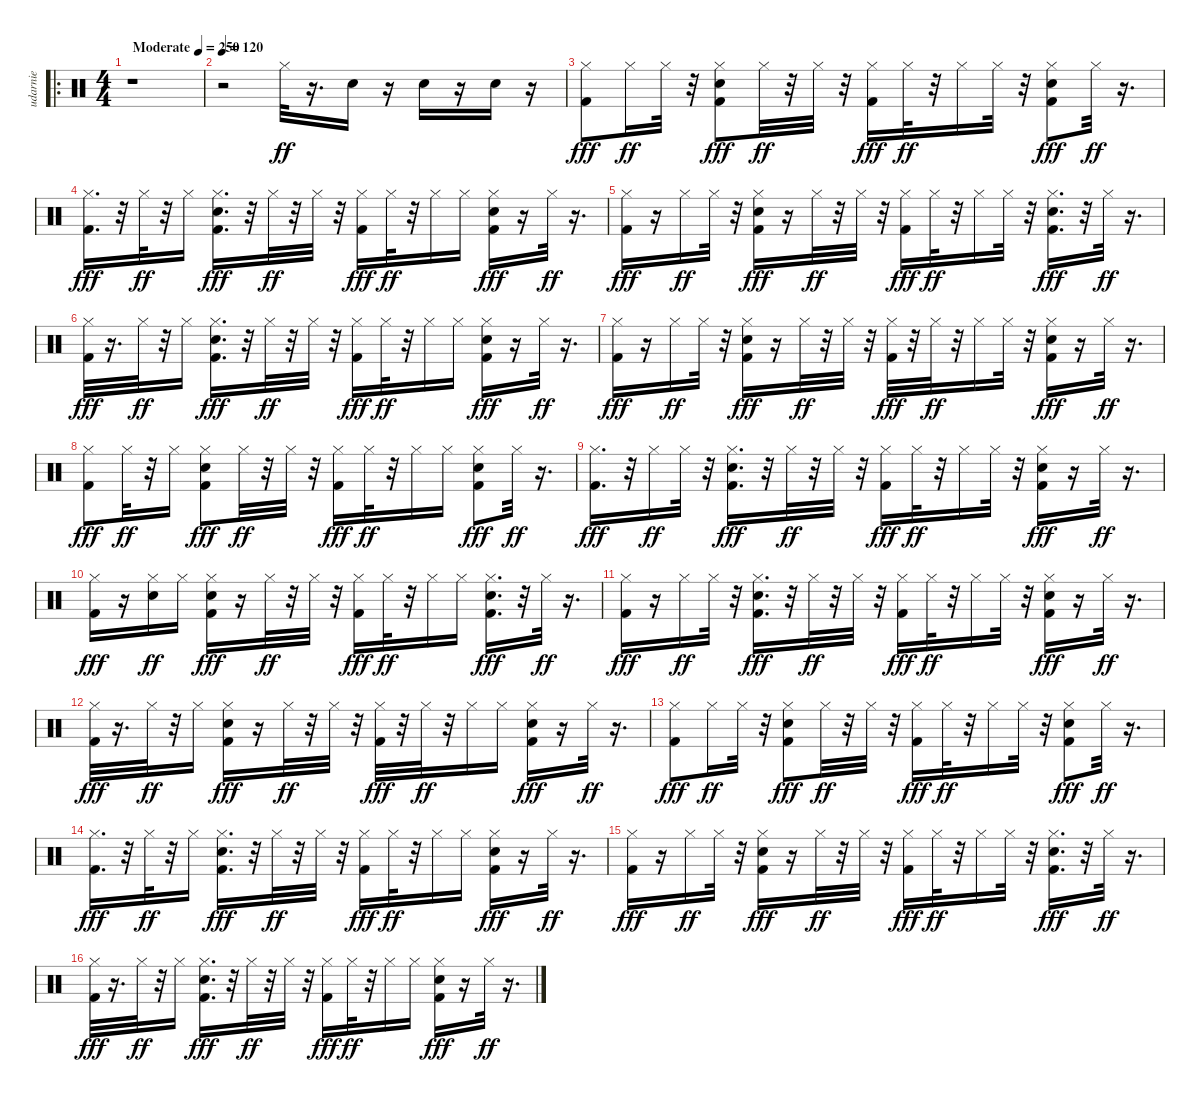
\track ("udarnie" "udarnie") {instrument percussion}
\staff {score}
\articulation defaults
\ro
\ts (4 4)
\tempo (250 "Moderate")
\clef neutral
\ks c
r.1{dy ff} |
\tempo 120
r.2 "Hi-Hat (closed)".32 r.16{d} "Electric Snare (hit)".16 r.16 "Electric Snare (hit)".16 r.16 "Electric Snare (hit)".16 r.16 |
("Hi-Hat (closed)" "Kick (hit) 2").8{dy fff} "Hi-Hat (closed)".16{dy ff} "Hi-Hat (closed)".32 r.32 ("Hi-Hat (closed)" "Electric Snare (hit)" "Kick (hit) 2").8{dy fff} "Hi-Hat (closed)".32{dy ff} r.32 "Hi-Hat (closed)".32 r.32 ("Hi-Hat (closed)" "Kick (hit) 2").16{dy fff} "Hi-Hat (closed)".32{dy ff} r.32 "Hi-Hat (closed)".16 "Hi-Hat (closed)".32 r.32 ("Hi-Hat (closed)" "Electric Snare (hit)" "Kick (hit) 2").8{dy fff} "Hi-Hat (closed)".32{dy ff} r.16{d} |
("Hi-Hat (closed)" "Kick (hit) 2").16{d dy fff} r.32 "Hi-Hat (closed)".32{dy ff} r.32 "Hi-Hat (closed)".16 ("Hi-Hat (closed)" "Electric Snare (hit)" "Kick (hit) 2").16{d dy fff} r.32 "Hi-Hat (closed)".32{dy ff} r.32 "Hi-Hat (closed)".32 r.32 ("Hi-Hat (closed)" "Kick (hit) 2").16{dy fff} "Hi-Hat (closed)".32{dy ff} r.32 "Hi-Hat (closed)".16 "Hi-Hat (closed)".16 ("Hi-Hat (closed)" "Electric Snare (hit)" "Kick (hit) 2").16{dy fff} r.16 "Hi-Hat (closed)".32{dy ff} r.16{d} |
("Hi-Hat (closed)" "Kick (hit) 2").16{dy fff} r.16 "Hi-Hat (closed)".16{dy ff} "Hi-Hat (closed)".32 r.32 ("Hi-Hat (closed)" "Electric Snare (hit)" "Kick (hit) 2").16{dy fff} r.16 "Hi-Hat (closed)".32{dy ff} r.32 "Hi-Hat (closed)".32 r.32 ("Hi-Hat (closed)" "Kick (hit) 2").16{dy fff} "Hi-Hat (closed)".32{dy ff} r.32 "Hi-Hat (closed)".16 "Hi-Hat (closed)".32 r.32 ("Hi-Hat (closed)" "Electric Snare (hit)" "Kick (hit) 2").16{d dy fff} r.32 "Hi-Hat (closed)".32{dy ff} r.16{d} |
("Hi-Hat (closed)" "Kick (hit) 2").32{dy fff} r.16{d} "Hi-Hat (closed)".32{dy ff} r.32 "Hi-Hat (closed)".16 ("Hi-Hat (closed)" "Electric Snare (hit)" "Kick (hit) 2").16{d dy fff} r.32 "Hi-Hat (closed)".32{dy ff} r.32 "Hi-Hat (closed)".32 r.32 ("Hi-Hat (closed)" "Kick (hit) 2").16{dy fff} "Hi-Hat (closed)".32{dy ff} r.32 "Hi-Hat (closed)".16 "Hi-Hat (closed)".16 ("Hi-Hat (closed)" "Electric Snare (hit)" "Kick (hit) 2").16{dy fff} r.16 "Hi-Hat (closed)".32{dy ff} r.16{d} |
("Hi-Hat (closed)" "Kick (hit) 2").16{dy fff} r.16 "Hi-Hat (closed)".16{dy ff} "Hi-Hat (closed)".32 r.32 ("Hi-Hat (closed)" "Electric Snare (hit)" "Kick (hit) 2").16{dy fff} r.16 "Hi-Hat (closed)".32{dy ff} r.32 "Hi-Hat (closed)".32 r.32 ("Hi-Hat (closed)" "Kick (hit) 2").32{dy fff} r.32 "Hi-Hat (closed)".32{dy ff} r.32 "Hi-Hat (closed)".16 "Hi-Hat (closed)".32 r.32 ("Hi-Hat (closed)" "Electric Snare (hit)" "Kick (hit) 2").16{dy fff} r.16 "Hi-Hat (closed)".32{dy ff} r.16{d} |
("Hi-Hat (closed)" "Kick (hit) 2").8{dy fff} "Hi-Hat (closed)".32{dy ff} r.32 "Hi-Hat (closed)".16 ("Hi-Hat (closed)" "Electric Snare (hit)" "Kick (hit) 2").8{dy fff} "Hi-Hat (closed)".32{dy ff} r.32 "Hi-Hat (closed)".32 r.32 ("Hi-Hat (closed)" "Kick (hit) 2").16{dy fff} "Hi-Hat (closed)".32{dy ff} r.32 "Hi-Hat (closed)".16 "Hi-Hat (closed)".16 ("Hi-Hat (closed)" "Electric Snare (hit)" "Kick (hit) 2").8{dy fff} "Hi-Hat (closed)".32{dy ff} r.16{d} |
("Hi-Hat (closed)" "Kick (hit) 2").16{d dy fff} r.32 "Hi-Hat (closed)".16{dy ff} "Hi-Hat (closed)".32 r.32 ("Hi-Hat (closed)" "Electric Snare (hit)" "Kick (hit) 2").16{d dy fff} r.32 "Hi-Hat (closed)".32{dy ff} r.32 "Hi-Hat (closed)".32 r.32 ("Hi-Hat (closed)" "Kick (hit) 2").16{dy fff} "Hi-Hat (closed)".32{dy ff} r.32 "Hi-Hat (closed)".16 "Hi-Hat (closed)".32 r.32 ("Hi-Hat (closed)" "Electric Snare (hit)" "Kick (hit) 2").16{dy fff} r.16 "Hi-Hat (closed)".32{dy ff} r.16{d} |
("Hi-Hat (closed)" "Kick (hit) 2").16{dy fff} r.16 ("Hi-Hat (closed)" "Electric Snare (hit)").16{dy ff} "Hi-Hat (closed)".16 ("Hi-Hat (closed)" "Electric Snare (hit)" "Kick (hit) 2").16{dy fff} r.16 "Hi-Hat (closed)".32{dy ff} r.32 "Hi-Hat (closed)".32 r.32 ("Hi-Hat (closed)" "Kick (hit) 2").16{dy fff} "Hi-Hat (closed)".32{dy ff} r.32 "Hi-Hat (closed)".16 "Hi-Hat (closed)".16 ("Hi-Hat (closed)" "Electric Snare (hit)" "Kick (hit) 2").16{d dy fff} r.32 "Hi-Hat (closed)".32{dy ff} r.16{d} |
("Hi-Hat (closed)" "Kick (hit) 2").16{dy fff} r.16 "Hi-Hat (closed)".16{dy ff} "Hi-Hat (closed)".32 r.32 ("Hi-Hat (closed)" "Electric Snare (hit)" "Kick (hit) 2").16{d dy fff} r.32 "Hi-Hat (closed)".32{dy ff} r.32 "Hi-Hat (closed)".32 r.32 ("Hi-Hat (closed)" "Kick (hit) 2").16{dy fff} "Hi-Hat (closed)".32{dy ff} r.32 "Hi-Hat (closed)".16 "Hi-Hat (closed)".32 r.32 ("Hi-Hat (closed)" "Electric Snare (hit)" "Kick (hit) 2").16{dy fff} r.16 "Hi-Hat (closed)".32{dy ff} r.16{d} |
("Hi-Hat (closed)" "Kick (hit) 2").32{dy fff} r.16{d} "Hi-Hat (closed)".32{dy ff} r.32 "Hi-Hat (closed)".16 ("Hi-Hat (closed)" "Electric Snare (hit)" "Kick (hit) 2").16{dy fff} r.16 "Hi-Hat (closed)".32{dy ff} r.32 "Hi-Hat (closed)".32 r.32 ("Hi-Hat (closed)" "Kick (hit) 2").32{dy fff} r.32 "Hi-Hat (closed)".32{dy ff} r.32 "Hi-Hat (closed)".16 "Hi-Hat (closed)".16 ("Hi-Hat (closed)" "Electric Snare (hit)" "Kick (hit) 2").16{dy fff} r.16 "Hi-Hat (closed)".32{dy ff} r.16{d} |
("Hi-Hat (closed)" "Kick (hit) 2").8{dy fff} "Hi-Hat (closed)".16{dy ff} "Hi-Hat (closed)".32 r.32 ("Hi-Hat (closed)" "Electric Snare (hit)" "Kick (hit) 2").8{dy fff} "Hi-Hat (closed)".32{dy ff} r.32 "Hi-Hat (closed)".32 r.32 ("Hi-Hat (closed)" "Kick (hit) 2").16{dy fff} "Hi-Hat (closed)".32{dy ff} r.32 "Hi-Hat (closed)".16 "Hi-Hat (closed)".32 r.32 ("Hi-Hat (closed)" "Electric Snare (hit)" "Kick (hit) 2").8{dy fff} "Hi-Hat (closed)".32{dy ff} r.16{d} |
("Hi-Hat (closed)" "Kick (hit) 2").16{d dy fff} r.32 "Hi-Hat (closed)".32{dy ff} r.32 "Hi-Hat (closed)".16 ("Hi-Hat (closed)" "Electric Snare (hit)" "Kick (hit) 2").16{d dy fff} r.32 "Hi-Hat (closed)".32{dy ff} r.32 "Hi-Hat (closed)".32 r.32 ("Hi-Hat (closed)" "Kick (hit) 2").16{dy fff} "Hi-Hat (closed)".32{dy ff} r.32 "Hi-Hat (closed)".16 "Hi-Hat (closed)".16 ("Hi-Hat (closed)" "Electric Snare (hit)" "Kick (hit) 2").16{dy fff} r.16 "Hi-Hat (closed)".32{dy ff} r.16{d} |
("Hi-Hat (closed)" "Kick (hit) 2").16{dy fff} r.16 "Hi-Hat (closed)".16{dy ff} "Hi-Hat (closed)".32 r.32 ("Hi-Hat (closed)" "Electric Snare (hit)" "Kick (hit) 2").16{dy fff} r.16 "Hi-Hat (closed)".32{dy ff} r.32 "Hi-Hat (closed)".32 r.32 ("Hi-Hat (closed)" "Kick (hit) 2").16{dy fff} "Hi-Hat (closed)".32{dy ff} r.32 "Hi-Hat (closed)".16 "Hi-Hat (closed)".32 r.32 ("Hi-Hat (closed)" "Electric Snare (hit)" "Kick (hit) 2").16{d dy fff} r.32 "Hi-Hat (closed)".32{dy ff} r.16{d} |
("Hi-Hat (closed)" "Kick (hit) 2").32{dy fff} r.16{d} "Hi-Hat (closed)".32{dy ff} r.32 "Hi-Hat (closed)".16 ("Hi-Hat (closed)" "Electric Snare (hit)" "Kick (hit) 2").16{d dy fff} r.32 "Hi-Hat (closed)".32{dy ff} r.32 "Hi-Hat (closed)".32 r.32 ("Hi-Hat (closed)" "Kick (hit) 2").16{dy fff} "Hi-Hat (closed)".32{dy ff} r.32 "Hi-Hat (closed)".16 "Hi-Hat (closed)".16 ("Hi-Hat (closed)" "Electric Snare (hit)" "Kick (hit) 2").16{dy fff} r.16 "Hi-Hat (closed)".32{dy ff} r.16{d}
